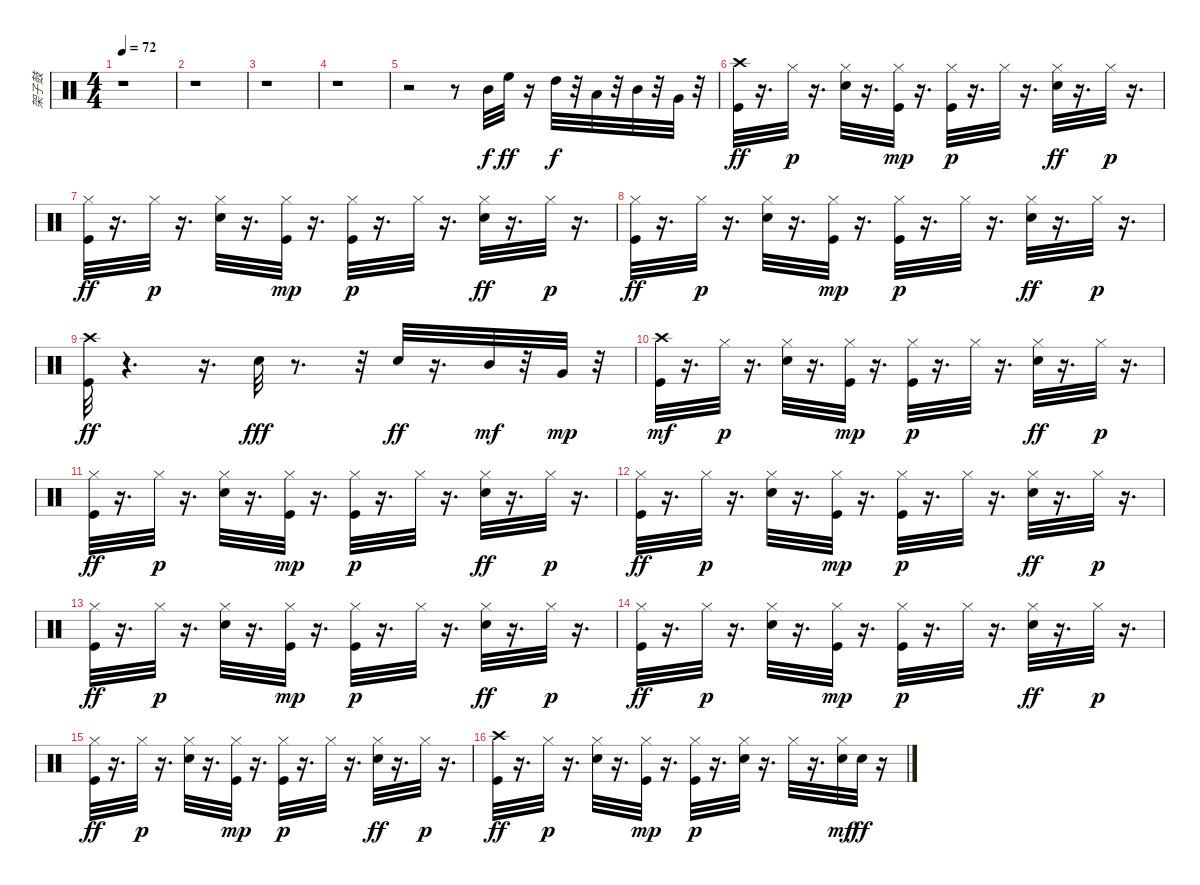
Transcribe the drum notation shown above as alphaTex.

\track ("架子鼓" "架子鼓") {instrument percussion}
\staff {score}
\articulation defaults
\ts (4 4)
\tempo 72
\clef neutral
\ks c
r.1{dy f} |
r.1 |
r.1 |
r.1 |
r.2 r.8 "Mid Tom (hit)".32 "High Floor Tom (hit)".32{dy ff} r.16 "High Tom (hit)".32{dy f} r.32 "Low Tom (hit)".32 r.32 "Mid Tom (hit)".32 r.32 "Very Low Tom (hit)".32 r.32 |
("Kick (hit)" "Crash high (hit)").32{dy ff} r.16{d} "Hi-Hat (closed)".32{dy p} r.16{d} ("Hi-Hat (closed)" "Snare (hit) 2").32 r.16{d} ("Hi-Hat (closed)" "Kick (hit)").32{dy mp} r.16{d} ("Hi-Hat (closed)" "Kick (hit)").32{dy p} r.16{d} "Hi-Hat (closed)".32 r.16{d} ("Hi-Hat (closed)" "Snare (hit) 2").32{dy ff} r.16{d} "Hi-Hat (closed)".32{dy p} r.16{d} |
("Hi-Hat (closed)" "Kick (hit)").32{dy ff} r.16{d} "Hi-Hat (closed)".32{dy p} r.16{d} ("Hi-Hat (closed)" "Snare (hit) 2").32 r.16{d} ("Hi-Hat (closed)" "Kick (hit)").32{dy mp} r.16{d} ("Hi-Hat (closed)" "Kick (hit)").32{dy p} r.16{d} "Hi-Hat (closed)".32 r.16{d} ("Hi-Hat (closed)" "Snare (hit) 2").32{dy ff} r.16{d} "Hi-Hat (closed)".32{dy p} r.16{d} |
("Hi-Hat (closed)" "Kick (hit)").32{dy ff} r.16{d} "Hi-Hat (closed)".32{dy p} r.16{d} ("Hi-Hat (closed)" "Snare (hit) 2").32 r.16{d} ("Hi-Hat (closed)" "Kick (hit)").32{dy mp} r.16{d} ("Hi-Hat (closed)" "Kick (hit)").32{dy p} r.16{d} "Hi-Hat (closed)".32 r.16{d} ("Hi-Hat (closed)" "Snare (hit) 2").32{dy ff} r.16{d} "Hi-Hat (closed)".32{dy p} r.16{d} |
("Crash high (hit)" "Kick (hit)").32{dy ff} r.4{d} r.16{d} "Snare (hit) 2".32{dy fff} r.8{d} r.32 "Snare (hit) 2".32{dy ff} r.16{d} "Mid Tom (hit)".32{dy mf} r.32 "Very Low Tom (hit)".32{dy mp} r.32 |
("Crash high (hit)" "Kick (hit)").32{dy mf} r.16{d} "Hi-Hat (closed)".32{dy p} r.16{d} ("Hi-Hat (closed)" "Snare (hit) 2").32 r.16{d} ("Hi-Hat (closed)" "Kick (hit)").32{dy mp} r.16{d} ("Hi-Hat (closed)" "Kick (hit)").32{dy p} r.16{d} "Hi-Hat (closed)".32 r.16{d} ("Hi-Hat (closed)" "Snare (hit) 2").32{dy ff} r.16{d} "Hi-Hat (closed)".32{dy p} r.16{d} |
("Hi-Hat (closed)" "Kick (hit)").32{dy ff} r.16{d} "Hi-Hat (closed)".32{dy p} r.16{d} ("Hi-Hat (closed)" "Snare (hit) 2").32 r.16{d} ("Hi-Hat (closed)" "Kick (hit)").32{dy mp} r.16{d} ("Hi-Hat (closed)" "Kick (hit)").32{dy p} r.16{d} "Hi-Hat (closed)".32 r.16{d} ("Hi-Hat (closed)" "Snare (hit) 2").32{dy ff} r.16{d} "Hi-Hat (closed)".32{dy p} r.16{d} |
("Hi-Hat (closed)" "Kick (hit)").32{dy ff} r.16{d} "Hi-Hat (closed)".32{dy p} r.16{d} ("Hi-Hat (closed)" "Snare (hit) 2").32 r.16{d} ("Hi-Hat (closed)" "Kick (hit)").32{dy mp} r.16{d} ("Hi-Hat (closed)" "Kick (hit)").32{dy p} r.16{d} "Hi-Hat (closed)".32 r.16{d} ("Hi-Hat (closed)" "Snare (hit) 2").32{dy ff} r.16{d} "Hi-Hat (closed)".32{dy p} r.16{d} |
("Hi-Hat (closed)" "Kick (hit)").32{dy ff} r.16{d} "Hi-Hat (closed)".32{dy p} r.16{d} ("Hi-Hat (closed)" "Snare (hit) 2").32 r.16{d} ("Hi-Hat (closed)" "Kick (hit)").32{dy mp} r.16{d} ("Hi-Hat (closed)" "Kick (hit)").32{dy p} r.16{d} "Hi-Hat (closed)".32 r.16{d} ("Hi-Hat (closed)" "Snare (hit) 2").32{dy ff} r.16{d} "Hi-Hat (closed)".32{dy p} r.16{d} |
("Hi-Hat (closed)" "Kick (hit)").32{dy ff} r.16{d} "Hi-Hat (closed)".32{dy p} r.16{d} ("Hi-Hat (closed)" "Snare (hit) 2").32 r.16{d} ("Hi-Hat (closed)" "Kick (hit)").32{dy mp} r.16{d} ("Hi-Hat (closed)" "Kick (hit)").32{dy p} r.16{d} "Hi-Hat (closed)".32 r.16{d} ("Hi-Hat (closed)" "Snare (hit) 2").32{dy ff} r.16{d} "Hi-Hat (closed)".32{dy p} r.16{d} |
("Hi-Hat (closed)" "Kick (hit)").32{dy ff} r.16{d} "Hi-Hat (closed)".32{dy p} r.16{d} ("Hi-Hat (closed)" "Snare (hit) 2").32 r.16{d} ("Hi-Hat (closed)" "Kick (hit)").32{dy mp} r.16{d} ("Hi-Hat (closed)" "Kick (hit)").32{dy p} r.16{d} "Hi-Hat (closed)".32 r.16{d} ("Hi-Hat (closed)" "Snare (hit) 2").32{dy ff} r.16{d} "Hi-Hat (closed)".32{dy p} r.16{d} |
("Crash high (hit)" "Kick (hit)").32{dy ff} r.16{d} "Hi-Hat (closed)".32{dy p} r.16{d} ("Hi-Hat (closed)" "Snare (hit) 2").32 r.16{d} ("Hi-Hat (closed)" "Kick (hit)").32{dy mp} r.16{d} ("Hi-Hat (closed)" "Kick (hit)").32{dy p} r.16{d} ("Hi-Hat (closed)" "Snare (hit) 2").32 r.16{d} "Hi-Hat (closed)".32 r.16{d} ("Hi-Hat (closed)" "Snare (hit) 2").32{dy mf} "Snare (hit) 2".32{dy ff} r.16
